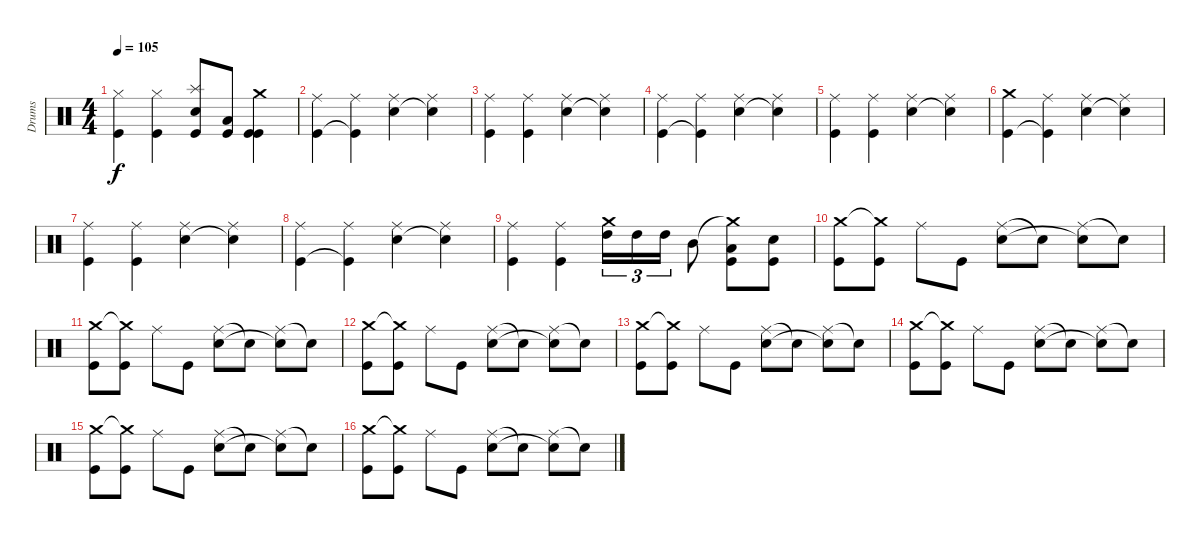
\track ("Drums" "Drums") {instrument percussion}
\staff {score}
\articulation defaults
\ts (4 4)
\tempo 105
\clef neutral
\ks c
("Hi-Hat (closed)" "Kick (hit)").4{dy f} ("Hi-Hat (closed)" "Kick (hit)").4 ("Splash (hit)" "Electric Snare (hit)" "Kick (hit)").8 ("Low Tom (hit)" "Kick (hit)").8 ("Crash medium (hit)" "Kick (hit)" "Kick (hit)").4 |
("Ride (middle)" "Kick (hit)").4 ("Ride (middle)" "Kick (hit)"{t}).4 ("Ride (middle)" "Snare (hit) 2").4 ("Ride (middle)" "Snare (hit) 2"{t}).4 |
("Ride (middle)" "Kick (hit)").4 ("Ride (middle)" "Kick (hit)").4 ("Ride (middle)" "Snare (hit) 2").4 ("Ride (middle)" "Snare (hit) 2"{t}).4 |
("Ride (middle)" "Kick (hit)").4 ("Ride (middle)" "Kick (hit)"{t}).4 ("Ride (middle)" "Snare (hit) 2").4 ("Ride (middle)" "Snare (hit) 2"{t}).4 |
("Ride (middle)" "Kick (hit)").4 ("Ride (middle)" "Kick (hit)").4 ("Ride (middle)" "Snare (hit) 2").4 ("Ride (middle)" "Snare (hit) 2"{t}).4 |
("Crash medium (hit)" "Kick (hit)").4 ("Ride (middle)" "Kick (hit)"{t}).4 ("Ride (middle)" "Snare (hit) 2").4 ("Ride (middle)" "Snare (hit) 2"{t}).4 |
("Ride (middle)" "Kick (hit)").4 ("Ride (middle)" "Kick (hit)").4 ("Ride (middle)" "Snare (hit) 2").4 ("Ride (middle)" "Snare (hit) 2"{t}).4 |
("Ride (middle)" "Kick (hit)").4 ("Ride (middle)" "Kick (hit)"{t}).4 ("Ride (middle)" "Snare (hit) 2").4 ("Ride (middle)" "Snare (hit) 2"{t}).4 |
("Ride (middle)" "Kick (hit)").4 ("Ride (middle)" "Kick (hit)").4 ("Crash medium (hit)" "High Tom (hit)").16{tu (3 2)} "High Tom (hit)".16{tu (3 2)} "High Tom (hit)".16{tu (3 2)} "Mid Tom (hit)".8 ("Crash medium (hit)"{t} "Low Tom (hit)" "Kick (hit)").8 ("Snare (hit) 2" "Kick (hit)").8 |
("Crash medium (hit)" "Kick (hit)").8 ("Crash medium (hit)"{t} "Kick (hit)").8 "Ride (middle)".8 "Kick (hit)".8 ("Ride (middle)" "Snare (hit) 2").8 "Snare (hit) 2"{t}.8 ("Ride (middle)" "Snare (hit) 2"{t}).8 "Snare (hit) 2"{t}.8 |
("Crash medium (hit)" "Kick (hit)").8 ("Crash medium (hit)"{t} "Kick (hit)").8 "Ride (middle)".8 "Kick (hit)".8 ("Ride (middle)" "Snare (hit) 2").8 "Snare (hit) 2"{t}.8 ("Ride (middle)" "Snare (hit) 2"{t}).8 "Snare (hit) 2"{t}.8 |
("Crash medium (hit)" "Kick (hit)").8 ("Crash medium (hit)"{t} "Kick (hit)").8 "Ride (middle)".8 "Kick (hit)".8 ("Ride (middle)" "Snare (hit) 2").8 "Snare (hit) 2"{t}.8 ("Ride (middle)" "Snare (hit) 2"{t}).8 "Snare (hit) 2"{t}.8 |
("Crash medium (hit)" "Kick (hit)").8 ("Crash medium (hit)"{t} "Kick (hit)").8 "Ride (middle)".8 "Kick (hit)".8 ("Ride (middle)" "Snare (hit) 2").8 "Snare (hit) 2"{t}.8 ("Ride (middle)" "Snare (hit) 2"{t}).8 "Snare (hit) 2"{t}.8 |
("Crash medium (hit)" "Kick (hit)").8 ("Crash medium (hit)"{t} "Kick (hit)").8 "Ride (middle)".8 "Kick (hit)".8 ("Ride (middle)" "Snare (hit) 2").8 "Snare (hit) 2"{t}.8 ("Ride (middle)" "Snare (hit) 2"{t}).8 "Snare (hit) 2"{t}.8 |
("Crash medium (hit)" "Kick (hit)").8 ("Crash medium (hit)"{t} "Kick (hit)").8 "Ride (middle)".8 "Kick (hit)".8 ("Ride (middle)" "Snare (hit) 2").8 "Snare (hit) 2"{t}.8 ("Ride (middle)" "Snare (hit) 2"{t}).8 "Snare (hit) 2"{t}.8 |
("Crash medium (hit)" "Kick (hit)").8 ("Crash medium (hit)"{t} "Kick (hit)").8 "Ride (middle)".8 "Kick (hit)".8 ("Ride (middle)" "Snare (hit) 2").8 "Snare (hit) 2"{t}.8 ("Ride (middle)" "Snare (hit) 2"{t}).8 "Snare (hit) 2"{t}.8
